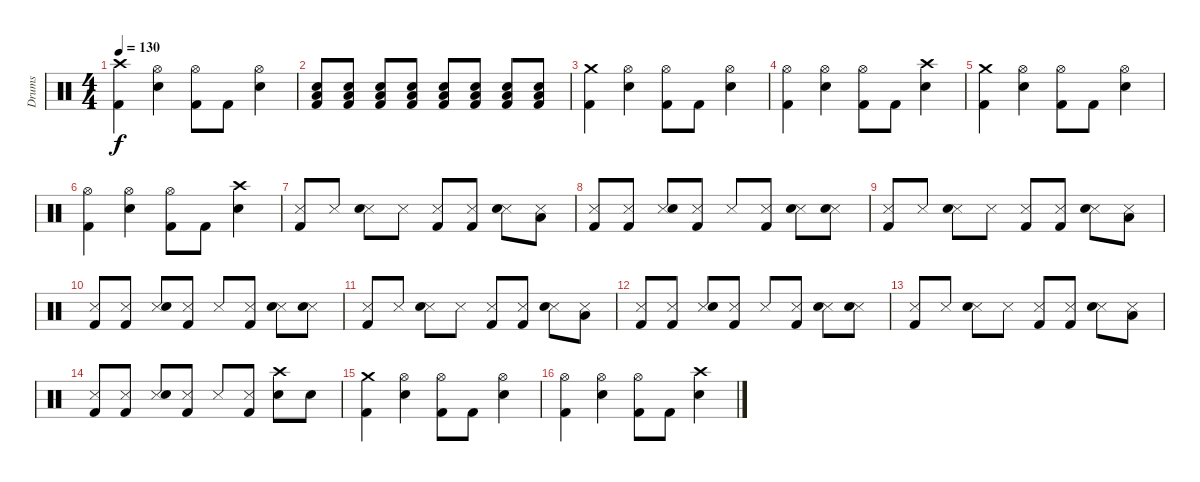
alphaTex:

\track ("Drums" "Drums") {instrument percussion}
\staff {score}
\articulation defaults
\ts (4 4)
\tempo 130
\clef neutral
\ks c
("Crash high (hit)" "Kick (hit) 2").4{dy f} ("Hi-Hat (open)" "Snare (hit) 2").4 ("Hi-Hat (open)" "Kick (hit) 2").8 "Kick (hit) 2".8 ("Hi-Hat (open)" "Snare (hit) 2").4 |
("Snare (hit) 2" "Low Floor Tom (hit)" "Kick (hit) 2").8 ("Snare (hit) 2" "Low Floor Tom (hit)" "Kick (hit) 2").8 ("Snare (hit) 2" "Low Floor Tom (hit)" "Kick (hit) 2").8 ("Snare (hit) 2" "Low Floor Tom (hit)" "Kick (hit) 2").8 ("Snare (hit) 2" "Low Floor Tom (hit)" "Kick (hit) 2").8 ("Snare (hit) 2" "Low Floor Tom (hit)" "Kick (hit) 2").8 ("Snare (hit) 2" "Low Floor Tom (hit)" "Kick (hit) 2").8 ("Snare (hit) 2" "Low Floor Tom (hit)" "Kick (hit) 2").8 |
("Crash medium (hit)" "Kick (hit) 2").4 ("Hi-Hat (open)" "Snare (hit) 2").4 ("Hi-Hat (open)" "Kick (hit) 2").8 "Kick (hit) 2".8 ("Hi-Hat (open)" "Snare (hit) 2").4 |
("Hi-Hat (open)" "Kick (hit) 2").4 ("Hi-Hat (open)" "Snare (hit) 2").4 ("Hi-Hat (open)" "Kick (hit) 2").8 "Kick (hit) 2".8 ("Crash high (hit)" "Snare (hit) 2").4 |
("Crash medium (hit)" "Kick (hit) 2").4 ("Hi-Hat (open)" "Snare (hit) 2").4 ("Hi-Hat (open)" "Kick (hit) 2").8 "Kick (hit) 2".8 ("Hi-Hat (open)" "Snare (hit) 2").4 |
("Hi-Hat (open)" "Kick (hit) 2").4 ("Hi-Hat (open)" "Snare (hit) 2").4 ("Hi-Hat (open)" "Kick (hit) 2").8 "Kick (hit) 2".8 ("Crash high (hit)" "Snare (hit) 2").4 |
("Snare (side stick) 3" "Kick (hit) 2").8 "Snare (side stick) 3".8 ("Snare (side stick) 3" "Snare (hit) 2").8 "Snare (side stick) 3".8 ("Snare (side stick) 3" "Kick (hit) 2").8 ("Snare (side stick) 3" "Kick (hit) 2").8 ("Snare (side stick) 3" "Snare (hit) 2").8 ("Snare (side stick) 3" "Low Tom (hit)").8 |
("Snare (side stick) 3" "Kick (hit) 2").8 ("Snare (side stick) 3" "Kick (hit) 2").8 ("Snare (side stick) 3" "Snare (hit) 2").8 ("Snare (side stick) 3" "Kick (hit) 2").8 "Snare (side stick) 3".8 ("Snare (side stick) 3" "Kick (hit) 2").8 ("Snare (side stick) 3" "Snare (hit) 2").8 ("Snare (side stick) 3" "Snare (hit) 2").8 |
("Snare (side stick) 3" "Kick (hit) 2").8 "Snare (side stick) 3".8 ("Snare (side stick) 3" "Snare (hit) 2").8 "Snare (side stick) 3".8 ("Snare (side stick) 3" "Kick (hit) 2").8 ("Snare (side stick) 3" "Kick (hit) 2").8 ("Snare (side stick) 3" "Snare (hit) 2").8 ("Snare (side stick) 3" "Low Tom (hit)").8 |
("Snare (side stick) 3" "Kick (hit) 2").8 ("Snare (side stick) 3" "Kick (hit) 2").8 ("Snare (side stick) 3" "Snare (hit) 2").8 ("Snare (side stick) 3" "Kick (hit) 2").8 "Snare (side stick) 3".8 ("Snare (side stick) 3" "Kick (hit) 2").8 ("Snare (side stick) 3" "Snare (hit) 2").8 ("Snare (side stick) 3" "Snare (hit) 2").8 |
("Snare (side stick) 3" "Kick (hit) 2").8 "Snare (side stick) 3".8 ("Snare (side stick) 3" "Snare (hit) 2").8 "Snare (side stick) 3".8 ("Snare (side stick) 3" "Kick (hit) 2").8 ("Snare (side stick) 3" "Kick (hit) 2").8 ("Snare (side stick) 3" "Snare (hit) 2").8 ("Snare (side stick) 3" "Low Tom (hit)").8 |
("Snare (side stick) 3" "Kick (hit) 2").8 ("Snare (side stick) 3" "Kick (hit) 2").8 ("Snare (side stick) 3" "Snare (hit) 2").8 ("Snare (side stick) 3" "Kick (hit) 2").8 "Snare (side stick) 3".8 ("Snare (side stick) 3" "Kick (hit) 2").8 ("Snare (side stick) 3" "Snare (hit) 2").8 ("Snare (side stick) 3" "Snare (hit) 2").8 |
("Snare (side stick) 3" "Kick (hit) 2").8 "Snare (side stick) 3".8 ("Snare (side stick) 3" "Snare (hit) 2").8 "Snare (side stick) 3".8 ("Snare (side stick) 3" "Kick (hit) 2").8 ("Snare (side stick) 3" "Kick (hit) 2").8 ("Snare (side stick) 3" "Snare (hit) 2").8 ("Snare (side stick) 3" "Low Tom (hit)").8 |
("Snare (side stick) 3" "Kick (hit) 2").8 ("Snare (side stick) 3" "Kick (hit) 2").8 ("Snare (side stick) 3" "Snare (hit) 2").8 ("Snare (side stick) 3" "Kick (hit) 2").8 "Snare (side stick) 3".8 ("Snare (side stick) 3" "Kick (hit) 2").8 ("Crash high (hit)" "Snare (hit) 2").8 "Snare (hit) 2".8 |
("Crash medium (hit)" "Kick (hit) 2").4 ("Hi-Hat (open)" "Snare (hit) 2").4 ("Hi-Hat (open)" "Kick (hit) 2").8 "Kick (hit) 2".8 ("Hi-Hat (open)" "Snare (hit) 2").4 |
("Hi-Hat (open)" "Kick (hit) 2").4 ("Hi-Hat (open)" "Snare (hit) 2").4 ("Hi-Hat (open)" "Kick (hit) 2").8 "Kick (hit) 2".8 ("Crash high (hit)" "Snare (hit) 2").4
